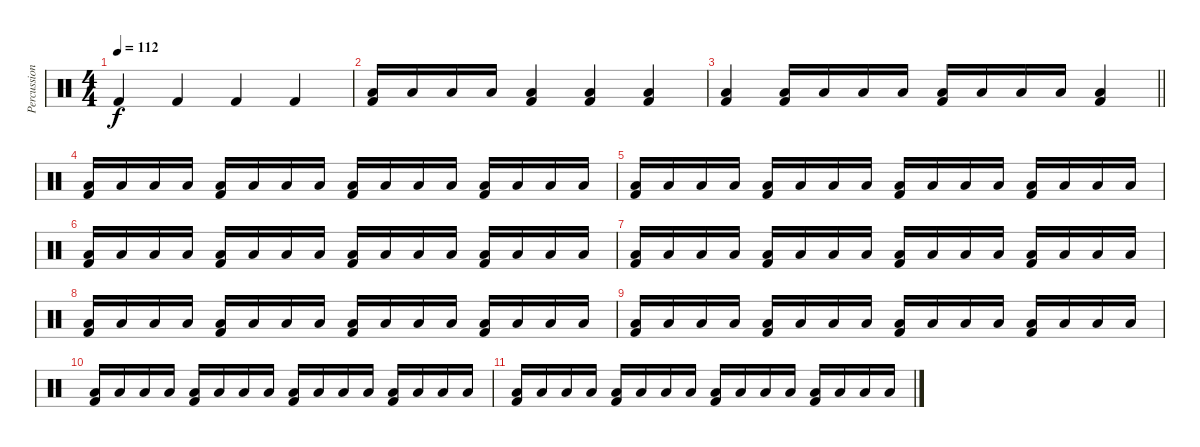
\track ("Percussion" "Percussion") {instrument percussion}
\staff {score}
\articulation defaults
\ts (4 4)
\tempo 112
\clef neutral
\ks c "Kick (hit) 2".4{dy f} "Kick (hit) 2".4 "Kick (hit) 2".4 "Kick (hit) 2".4
|
("Low Floor Tom (hit)" "Kick (hit) 2").16 "Low Floor Tom (hit)".16 "Low Floor Tom (hit)".16 "Low Floor Tom (hit)".16 ("Low Floor Tom (hit)" "Kick (hit) 2").4 ("Low Floor Tom (hit)" "Kick (hit) 2").4 ("Low Floor Tom (hit)" "Kick (hit) 2").4 |
\barLineRight lightlight
("Low Floor Tom (hit)" "Kick (hit) 2").4 ("Low Floor Tom (hit)" "Kick (hit) 2").16 "Low Floor Tom (hit)".16 "Low Floor Tom (hit)".16 "Low Floor Tom (hit)".16 ("Low Floor Tom (hit)" "Kick (hit) 2").16 "Low Floor Tom (hit)".16 "Low Floor Tom (hit)".16 "Low Floor Tom (hit)".16 ("Low Floor Tom (hit)" "Kick (hit) 2").4 |
("Low Floor Tom (hit)" "Kick (hit) 2").16 "Low Floor Tom (hit)".16 "Low Floor Tom (hit)".16 "Low Floor Tom (hit)".16 ("Low Floor Tom (hit)" "Kick (hit) 2").16 "Low Floor Tom (hit)".16 "Low Floor Tom (hit)".16 "Low Floor Tom (hit)".16 ("Low Floor Tom (hit)" "Kick (hit) 2").16 "Low Floor Tom (hit)".16 "Low Floor Tom (hit)".16 "Low Floor Tom (hit)".16 ("Low Floor Tom (hit)" "Kick (hit) 2").16 "Low Floor Tom (hit)".16 "Low Floor Tom (hit)".16 "Low Floor Tom (hit)".16 |
("Low Floor Tom (hit)" "Kick (hit) 2").16 "Low Floor Tom (hit)".16 "Low Floor Tom (hit)".16 "Low Floor Tom (hit)".16 ("Low Floor Tom (hit)" "Kick (hit) 2").16 "Low Floor Tom (hit)".16 "Low Floor Tom (hit)".16 "Low Floor Tom (hit)".16 ("Low Floor Tom (hit)" "Kick (hit) 2").16 "Low Floor Tom (hit)".16 "Low Floor Tom (hit)".16 "Low Floor Tom (hit)".16 ("Low Floor Tom (hit)" "Kick (hit) 2").16 "Low Floor Tom (hit)".16 "Low Floor Tom (hit)".16 "Low Floor Tom (hit)".16 |
("Low Floor Tom (hit)" "Kick (hit) 2").16 "Low Floor Tom (hit)".16 "Low Floor Tom (hit)".16 "Low Floor Tom (hit)".16 ("Low Floor Tom (hit)" "Kick (hit) 2").16 "Low Floor Tom (hit)".16 "Low Floor Tom (hit)".16 "Low Floor Tom (hit)".16 ("Low Floor Tom (hit)" "Kick (hit) 2").16 "Low Floor Tom (hit)".16 "Low Floor Tom (hit)".16 "Low Floor Tom (hit)".16 ("Low Floor Tom (hit)" "Kick (hit) 2").16 "Low Floor Tom (hit)".16 "Low Floor Tom (hit)".16 "Low Floor Tom (hit)".16 |
("Low Floor Tom (hit)" "Kick (hit) 2").16 "Low Floor Tom (hit)".16 "Low Floor Tom (hit)".16 "Low Floor Tom (hit)".16 ("Low Floor Tom (hit)" "Kick (hit) 2").16 "Low Floor Tom (hit)".16 "Low Floor Tom (hit)".16 "Low Floor Tom (hit)".16 ("Low Floor Tom (hit)" "Kick (hit) 2").16 "Low Floor Tom (hit)".16 "Low Floor Tom (hit)".16 "Low Floor Tom (hit)".16 ("Low Floor Tom (hit)" "Kick (hit) 2").16 "Low Floor Tom (hit)".16 "Low Floor Tom (hit)".16 "Low Floor Tom (hit)".16 |
("Low Floor Tom (hit)" "Kick (hit) 2").16 "Low Floor Tom (hit)".16 "Low Floor Tom (hit)".16 "Low Floor Tom (hit)".16 ("Low Floor Tom (hit)" "Kick (hit) 2").16 "Low Floor Tom (hit)".16 "Low Floor Tom (hit)".16 "Low Floor Tom (hit)".16 ("Low Floor Tom (hit)" "Kick (hit) 2").16 "Low Floor Tom (hit)".16 "Low Floor Tom (hit)".16 "Low Floor Tom (hit)".16 ("Low Floor Tom (hit)" "Kick (hit) 2").16 "Low Floor Tom (hit)".16 "Low Floor Tom (hit)".16 "Low Floor Tom (hit)".16 |
("Low Floor Tom (hit)" "Kick (hit) 2").16 "Low Floor Tom (hit)".16 "Low Floor Tom (hit)".16 "Low Floor Tom (hit)".16 ("Low Floor Tom (hit)" "Kick (hit) 2").16 "Low Floor Tom (hit)".16 "Low Floor Tom (hit)".16 "Low Floor Tom (hit)".16 ("Low Floor Tom (hit)" "Kick (hit) 2").16 "Low Floor Tom (hit)".16 "Low Floor Tom (hit)".16 "Low Floor Tom (hit)".16 ("Low Floor Tom (hit)" "Kick (hit) 2").16 "Low Floor Tom (hit)".16 "Low Floor Tom (hit)".16 "Low Floor Tom (hit)".16 |
("Low Floor Tom (hit)" "Kick (hit) 2").16 "Low Floor Tom (hit)".16 "Low Floor Tom (hit)".16 "Low Floor Tom (hit)".16 ("Low Floor Tom (hit)" "Kick (hit) 2").16 "Low Floor Tom (hit)".16 "Low Floor Tom (hit)".16 "Low Floor Tom (hit)".16 ("Low Floor Tom (hit)" "Kick (hit) 2").16 "Low Floor Tom (hit)".16 "Low Floor Tom (hit)".16 "Low Floor Tom (hit)".16 ("Low Floor Tom (hit)" "Kick (hit) 2").16 "Low Floor Tom (hit)".16 "Low Floor Tom (hit)".16 "Low Floor Tom (hit)".16 |
("Low Floor Tom (hit)" "Kick (hit) 2").16 "Low Floor Tom (hit)".16 "Low Floor Tom (hit)".16 "Low Floor Tom (hit)".16 ("Low Floor Tom (hit)" "Kick (hit) 2").16 "Low Floor Tom (hit)".16 "Low Floor Tom (hit)".16 "Low Floor Tom (hit)".16 ("Low Floor Tom (hit)" "Kick (hit) 2").16 "Low Floor Tom (hit)".16 "Low Floor Tom (hit)".16 "Low Floor Tom (hit)".16 ("Low Floor Tom (hit)" "Kick (hit) 2").16 "Low Floor Tom (hit)".16 "Low Floor Tom (hit)".16 "Low Floor Tom (hit)".16
